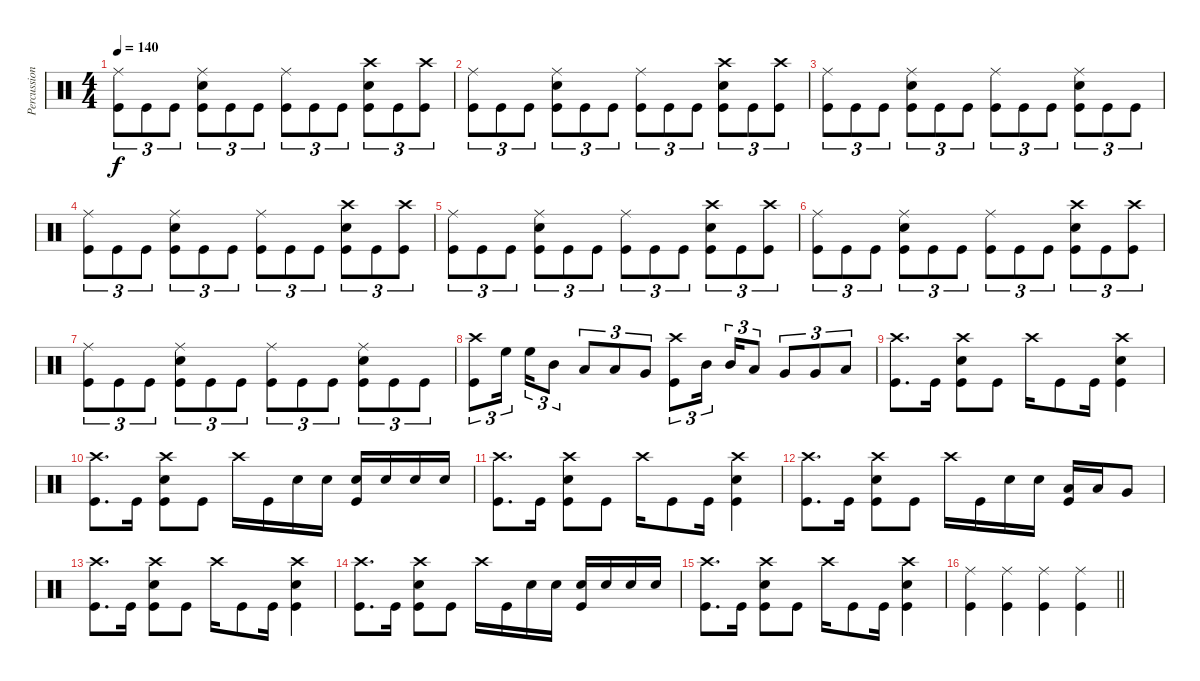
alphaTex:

\track ("Percussion" "Percussion") {instrument percussion}
\staff {score}
\articulation defaults
\ts (4 4)
\tempo 140
\clef neutral
\ks c
("Ride (middle)" "Kick (hit)").8{tu (3 2) dy f} "Kick (hit)".8{tu (3 2)} "Kick (hit)".8{tu (3 2)} ("Ride (middle)" "Snare (hit) 2" "Kick (hit)").8{tu (3 2)} "Kick (hit)".8{tu (3 2)} "Kick (hit)".8{tu (3 2)} ("Ride (middle)" "Kick (hit)").8{tu (3 2)} "Kick (hit)".8{tu (3 2)} "Kick (hit)".8{tu (3 2)} ("Crash high (hit)" "Snare (hit) 2" "Kick (hit)").8{tu (3 2)} "Kick (hit)".8{tu (3 2)} ("Crash high (hit)" "Kick (hit)").8{tu (3 2)} |
("Ride (middle)" "Kick (hit)").8{tu (3 2)} "Kick (hit)".8{tu (3 2)} "Kick (hit)".8{tu (3 2)} ("Ride (middle)" "Snare (hit) 2" "Kick (hit)").8{tu (3 2)} "Kick (hit)".8{tu (3 2)} "Kick (hit)".8{tu (3 2)} ("Ride (middle)" "Kick (hit)").8{tu (3 2)} "Kick (hit)".8{tu (3 2)} "Kick (hit)".8{tu (3 2)} ("Crash high (hit)" "Snare (hit) 2" "Kick (hit)").8{tu (3 2)} "Kick (hit)".8{tu (3 2)} ("Crash high (hit)" "Kick (hit)").8{tu (3 2)} |
("Ride (middle)" "Kick (hit)").8{tu (3 2)} "Kick (hit)".8{tu (3 2)} "Kick (hit)".8{tu (3 2)} ("Ride (middle)" "Snare (hit) 2" "Kick (hit)").8{tu (3 2)} "Kick (hit)".8{tu (3 2)} "Kick (hit)".8{tu (3 2)} ("Ride (middle)" "Kick (hit)").8{tu (3 2)} "Kick (hit)".8{tu (3 2)} "Kick (hit)".8{tu (3 2)} ("Ride (middle)" "Snare (hit) 2" "Kick (hit)").8{tu (3 2)} "Kick (hit)".8{tu (3 2)} "Kick (hit)".8{tu (3 2)} |
("Ride (middle)" "Kick (hit)").8{tu (3 2)} "Kick (hit)".8{tu (3 2)} "Kick (hit)".8{tu (3 2)} ("Ride (middle)" "Snare (hit) 2" "Kick (hit)").8{tu (3 2)} "Kick (hit)".8{tu (3 2)} "Kick (hit)".8{tu (3 2)} ("Ride (middle)" "Kick (hit)").8{tu (3 2)} "Kick (hit)".8{tu (3 2)} "Kick (hit)".8{tu (3 2)} ("Crash high (hit)" "Snare (hit) 2" "Kick (hit)").8{tu (3 2)} "Kick (hit)".8{tu (3 2)} ("Crash high (hit)" "Kick (hit)").8{tu (3 2)} |
("Ride (middle)" "Kick (hit)").8{tu (3 2)} "Kick (hit)".8{tu (3 2)} "Kick (hit)".8{tu (3 2)} ("Ride (middle)" "Snare (hit) 2" "Kick (hit)").8{tu (3 2)} "Kick (hit)".8{tu (3 2)} "Kick (hit)".8{tu (3 2)} ("Ride (middle)" "Kick (hit)").8{tu (3 2)} "Kick (hit)".8{tu (3 2)} "Kick (hit)".8{tu (3 2)} ("Crash high (hit)" "Snare (hit) 2" "Kick (hit)").8{tu (3 2)} "Kick (hit)".8{tu (3 2)} ("Crash high (hit)" "Kick (hit)").8{tu (3 2)} |
("Ride (middle)" "Kick (hit)").8{tu (3 2)} "Kick (hit)".8{tu (3 2)} "Kick (hit)".8{tu (3 2)} ("Ride (middle)" "Snare (hit) 2" "Kick (hit)").8{tu (3 2)} "Kick (hit)".8{tu (3 2)} "Kick (hit)".8{tu (3 2)} ("Ride (middle)" "Kick (hit)").8{tu (3 2)} "Kick (hit)".8{tu (3 2)} "Kick (hit)".8{tu (3 2)} ("Crash high (hit)" "Snare (hit) 2" "Kick (hit)").8{tu (3 2)} "Kick (hit)".8{tu (3 2)} ("Crash high (hit)" "Kick (hit)").8{tu (3 2)} |
("Ride (middle)" "Kick (hit)").8{tu (3 2)} "Kick (hit)".8{tu (3 2)} "Kick (hit)".8{tu (3 2)} ("Ride (middle)" "Snare (hit) 2" "Kick (hit)").8{tu (3 2)} "Kick (hit)".8{tu (3 2)} "Kick (hit)".8{tu (3 2)} ("Ride (middle)" "Kick (hit)").8{tu (3 2)} "Kick (hit)".8{tu (3 2)} "Kick (hit)".8{tu (3 2)} ("Ride (middle)" "Snare (hit) 2" "Kick (hit)").8{tu (3 2)} "Kick (hit)".8{tu (3 2)} "Kick (hit)".8{tu (3 2)} |
("Crash high (hit)" "Kick (hit)").8{tu (3 2)} "High Floor Tom (hit)".16{tu (3 2) beam splitsecondary} "High Floor Tom (hit)".16{tu (3 2)} "Mid Tom (hit)".8{tu (3 2)} "Low Tom (hit)".8{tu (3 2)} "Low Tom (hit)".8{tu (3 2)} "Very Low Tom (hit)".8{tu (3 2)} ("Crash high (hit)" "Kick (hit)").8{tu (3 2)} "Mid Tom (hit)".16{tu (3 2) beam splitsecondary} "Mid Tom (hit)".16{tu (3 2)} "Low Tom (hit)".8{tu (3 2)} "Very Low Tom (hit)".8{tu (3 2)} "Very Low Tom (hit)".8{tu (3 2)} "Low Floor Tom (hit)".8{tu (3 2)} |
("Crash high (hit)" "Kick (hit)").8{d} "Kick (hit)".16 ("Crash high (hit)" "Snare (hit) 2" "Kick (hit)").8 "Kick (hit)".8 "Crash high (hit)".16 "Kick (hit)".8 "Kick (hit)".16 ("Crash high (hit)" "Snare (hit) 2" "Kick (hit)").4 |
("Crash high (hit)" "Kick (hit)").8{d} "Kick (hit)".16 ("Crash high (hit)" "Snare (hit) 2" "Kick (hit)").8 "Kick (hit)".8 "Crash high (hit)".16 "Kick (hit)".16 "Snare (hit) 2".16 "Snare (hit) 2".16 ("Snare (hit) 2" "Kick (hit)").16 "Snare (hit) 2".16 "Snare (hit) 2".16 "Snare (hit) 2".16 |
("Crash high (hit)" "Kick (hit)").8{d} "Kick (hit)".16 ("Crash high (hit)" "Snare (hit) 2" "Kick (hit)").8 "Kick (hit)".8 "Crash high (hit)".16 "Kick (hit)".8 "Kick (hit)".16 ("Crash high (hit)" "Snare (hit) 2" "Kick (hit)").4 |
("Crash high (hit)" "Kick (hit)").8{d} "Kick (hit)".16 ("Crash high (hit)" "Snare (hit) 2" "Kick (hit)").8 "Kick (hit)".8 "Crash high (hit)".16 "Kick (hit)".16 "Snare (hit) 2".16 "Snare (hit) 2".16 ("Low Tom (hit)" "Kick (hit)").16 "Low Tom (hit)".16 "Very Low Tom (hit)".8 |
("Crash high (hit)" "Kick (hit)").8{d} "Kick (hit)".16 ("Crash high (hit)" "Snare (hit) 2" "Kick (hit)").8 "Kick (hit)".8 "Crash high (hit)".16 "Kick (hit)".8 "Kick (hit)".16 ("Crash high (hit)" "Snare (hit) 2" "Kick (hit)").4 |
("Crash high (hit)" "Kick (hit)").8{d} "Kick (hit)".16 ("Crash high (hit)" "Snare (hit) 2" "Kick (hit)").8 "Kick (hit)".8 "Crash high (hit)".16 "Kick (hit)".16 "Snare (hit) 2".16 "Snare (hit) 2".16 ("Snare (hit) 2" "Kick (hit)").16 "Snare (hit) 2".16 "Snare (hit) 2".16 "Snare (hit) 2".16 |
("Crash high (hit)" "Kick (hit)").8{d} "Kick (hit)".16 ("Crash high (hit)" "Snare (hit) 2" "Kick (hit)").8 "Kick (hit)".8 "Crash high (hit)".16 "Kick (hit)".8 "Kick (hit)".16 ("Crash high (hit)" "Snare (hit) 2" "Kick (hit)").4 |
\barLineRight lightlight
("Ride (middle)" "Kick (hit)").4 ("Ride (middle)" "Kick (hit)").4 ("Ride (middle)" "Kick (hit)").4 ("Ride (middle)" "Kick (hit)").4
